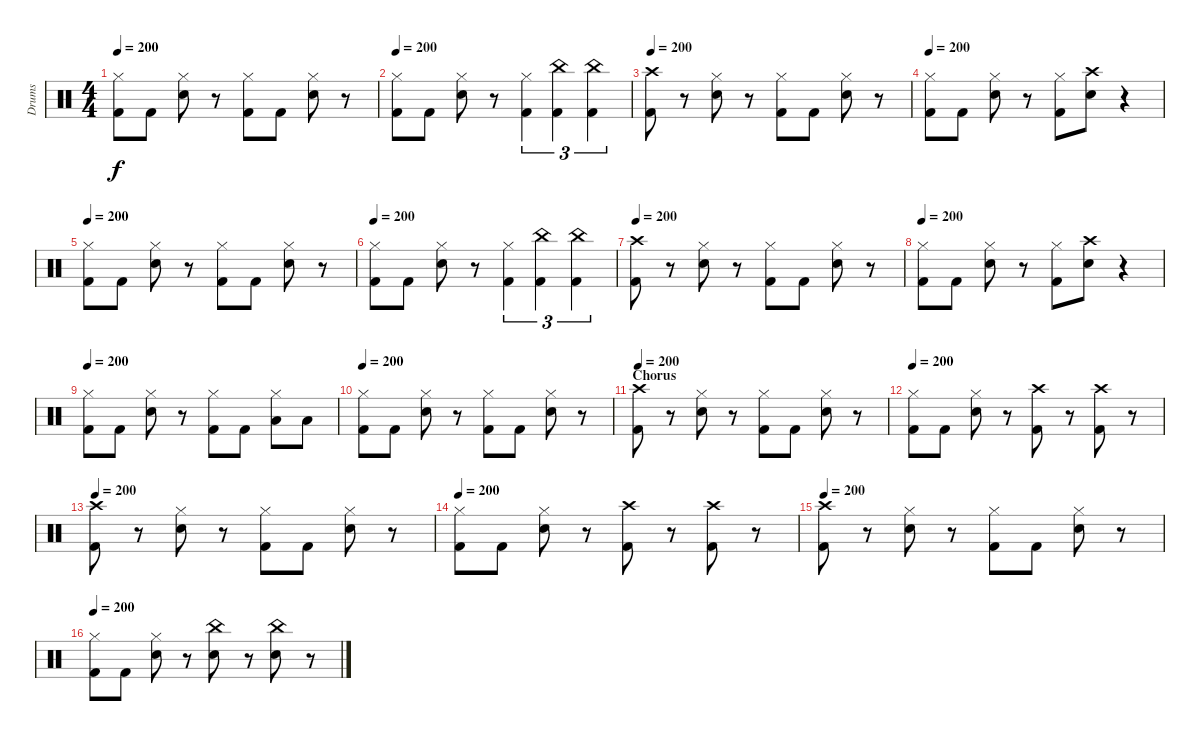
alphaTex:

\track ("Drums" "Drums") {instrument percussion}
\staff {score}
\articulation defaults
\ts (4 4)
\tempo 200
\clef neutral
\ks c
("Kick (hit) 2" "Hi-Hat (closed)").8{dy f} "Kick (hit) 2".8 ("Snare (hit) 2" "Hi-Hat (closed)").8 r.8 ("Kick (hit) 2" "Hi-Hat (closed)").8 "Kick (hit) 2".8 ("Snare (hit) 2" "Hi-Hat (closed)").8 r.8 |
\tempo 200
("Kick (hit) 2" "Hi-Hat (closed)").8 "Kick (hit) 2".8 ("Snare (hit) 2" "Hi-Hat (closed)").8 r.8 ("Hi-Hat (closed)" "Kick (hit) 2").4{tu (3 2)} ("China (hit)" "Kick (hit) 2").4{tu (3 2)} ("China (hit)" "Kick (hit) 2").4{tu (3 2)} |
\tempo 200
("Kick (hit) 2" "Crash high (hit)").8 r.8 ("Hi-Hat (closed)" "Snare (hit) 2").8 r.8 ("Hi-Hat (closed)" "Kick (hit) 2").8 "Kick (hit) 2".8 ("Hi-Hat (closed)" "Snare (hit) 2").8 r.8 |
\tempo 200
("Kick (hit) 2" "Hi-Hat (closed)").8 "Kick (hit) 2".8 ("Snare (hit) 2" "Hi-Hat (closed)").8 r.8 ("Hi-Hat (closed)" "Kick (hit) 2").8 ("Crash high (hit)" "Snare (hit) 2").8 r.4 |
\tempo 200
("Kick (hit) 2" "Hi-Hat (closed)").8 "Kick (hit) 2".8 ("Snare (hit) 2" "Hi-Hat (closed)").8 r.8 ("Kick (hit) 2" "Hi-Hat (closed)").8 "Kick (hit) 2".8 ("Snare (hit) 2" "Hi-Hat (closed)").8 r.8 |
\tempo 200
("Kick (hit) 2" "Hi-Hat (closed)").8 "Kick (hit) 2".8 ("Snare (hit) 2" "Hi-Hat (closed)").8 r.8 ("Hi-Hat (closed)" "Kick (hit) 2").4{tu (3 2)} ("China (hit)" "Kick (hit) 2").4{tu (3 2)} ("China (hit)" "Kick (hit) 2").4{tu (3 2)} |
\tempo 200
("Kick (hit) 2" "Crash high (hit)").8 r.8 ("Hi-Hat (closed)" "Snare (hit) 2").8 r.8 ("Hi-Hat (closed)" "Kick (hit) 2").8 "Kick (hit) 2".8 ("Hi-Hat (closed)" "Snare (hit) 2").8 r.8 |
\tempo 200
("Kick (hit) 2" "Hi-Hat (closed)").8 "Kick (hit) 2".8 ("Snare (hit) 2" "Hi-Hat (closed)").8 r.8 ("Hi-Hat (closed)" "Kick (hit) 2").8 ("Crash high (hit)" "Snare (hit) 2").8 r.4 |
\tempo 200
("Hi-Hat (closed)" "Kick (hit) 2").8 "Kick (hit) 2".8 ("Snare (hit) 2" "Hi-Hat (closed)").8 r.8 ("Hi-Hat (closed)" "Kick (hit) 2").8 "Kick (hit) 2".8 ("Low Tom (hit)" "Hi-Hat (closed)").8 "Low Tom (hit)".8 |
\tempo 200
("Hi-Hat (closed)" "Kick (hit) 2").8 "Kick (hit) 2".8 ("Hi-Hat (closed)" "Snare (hit) 2").8 r.8 ("Hi-Hat (closed)" "Kick (hit) 2").8 "Kick (hit) 2".8 ("Hi-Hat (closed)" "Snare (hit) 2").8 r.8 |
\section ("" "Chorus")
\tempo 200
("Kick (hit) 2" "Crash high (hit)").8 r.8 ("Hi-Hat (closed)" "Snare (hit) 2").8 r.8 ("Hi-Hat (closed)" "Kick (hit) 2").8 "Kick (hit) 2".8 ("Hi-Hat (closed)" "Snare (hit) 2").8 r.8 |
\tempo 200
("Hi-Hat (closed)" "Kick (hit) 2").8 "Kick (hit) 2".8 ("Snare (hit) 2" "Hi-Hat (closed)").8 r.8 ("Crash high (hit)" "Kick (hit) 2").8 r.8 ("Crash high (hit)" "Kick (hit) 2").8 r.8 |
\tempo 200
("Kick (hit) 2" "Crash high (hit)").8 r.8 ("Hi-Hat (closed)" "Snare (hit) 2").8 r.8 ("Kick (hit) 2" "Hi-Hat (closed)").8 "Kick (hit) 2".8 ("Snare (hit) 2" "Hi-Hat (closed)").8 r.8 |
\tempo 200
("Hi-Hat (closed)" "Kick (hit) 2").8 "Kick (hit) 2".8 ("Snare (hit) 2" "Hi-Hat (closed)").8 r.8 ("Crash high (hit)" "Kick (hit) 2").8 r.8 ("Crash high (hit)" "Kick (hit) 2").8 r.8 |
\tempo 200
("Kick (hit) 2" "Crash high (hit)").8 r.8 ("Hi-Hat (closed)" "Snare (hit) 2").8 r.8 ("Kick (hit) 2" "Hi-Hat (closed)").8 "Kick (hit) 2".8 ("Snare (hit) 2" "Hi-Hat (closed)").8 r.8 |
\tempo 200
("Kick (hit) 2" "Hi-Hat (closed)").8 "Kick (hit) 2".8 ("Snare (hit) 2" "Hi-Hat (closed)").8 r.8 ("China (hit)" "Snare (hit) 2").8 r.8 ("China (hit)" "Snare (hit) 2").8 r.8
